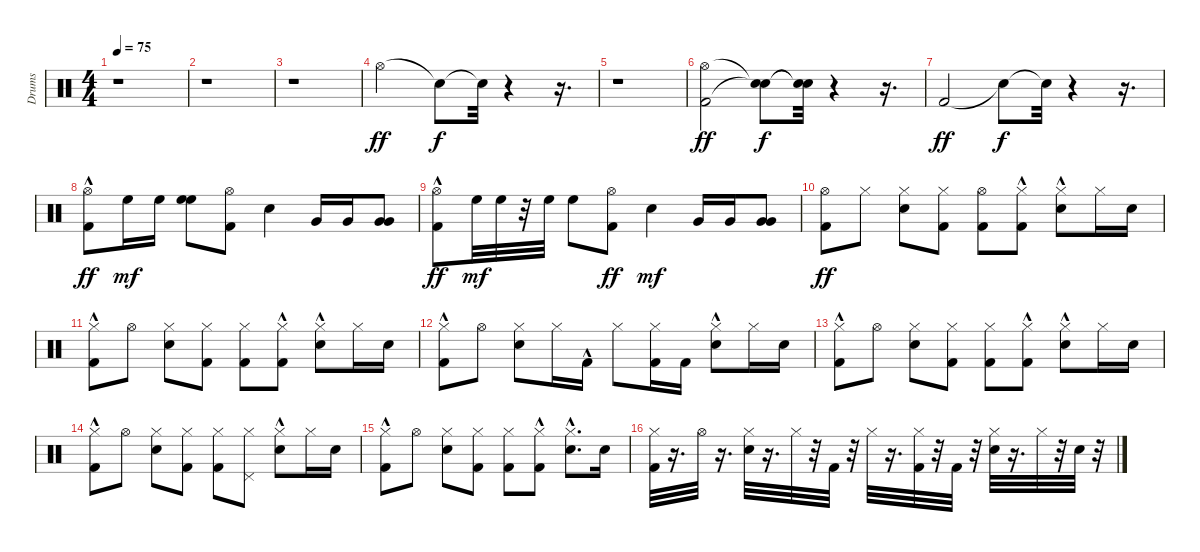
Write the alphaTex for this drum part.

\track ("Drums" "Drums") {instrument percussion}
\staff {score}
\articulation defaults
\ts (4 4)
\tempo 75
\clef neutral
\ks c
r.1{dy ff} |
r.1 |
r.1 |
"Hi-Hat (open)".2{volume 11} "Snare (hit)"{t}.8{dy f} "Snare (hit)"{t}.32 r.4 r.16{d} |
r.1 |
("Kick (hit) 2" "Hi-Hat (open)").2{dy ff} ("Snare (hit)"{t} "Snare (hit)"{t}).8{dy f} ("Snare (hit)"{t} "Snare (hit)"{t}).32 r.4 r.16{d} |
"Kick (hit) 2".2{dy ff} "Snare (hit)"{t}.8{dy f} "Snare (hit)"{t}.32 r.4 r.16{d} |
("Kick (hit) 2"{hac} "Hi-Hat (open)"{hac}).8{dy ff} "High Floor Tom (hit)".16{dy mf} "High Floor Tom (hit)".16 ("High Floor Tom (hit)" "High Floor Tom (hit)").8 ("Hi-Hat (open)" "Kick (hit) 2").8 "Snare (hit) 2".4 "Very Low Tom (hit)".16 "Very Low Tom (hit)".16 ("Very Low Tom (hit)" "Very Low Tom (hit)").8 |
("Kick (hit) 2"{hac} "Hi-Hat (open)"{hac}).8{dy ff} "High Floor Tom (hit)".32{dy mf} "High Floor Tom (hit)".32 r.32 "High Floor Tom (hit)".32 "High Floor Tom (hit)".8 ("Kick (hit) 2" "Hi-Hat (open)").8{dy ff} "Snare (hit) 2".4{dy mf} "Very Low Tom (hit)".16 "Very Low Tom (hit)".16 ("Very Low Tom (hit)" "Very Low Tom (hit)").8 |
("Kick (hit) 2" "Hi-Hat (open)").8{dy ff} "Hi-Hat (closed)".8 ("Snare (hit) 2" "Hi-Hat (closed)").8 ("Kick (hit) 2" "Hi-Hat (closed)").8 ("Kick (hit) 2" "Hi-Hat (open)").8 ("Kick (hit) 2"{hac} "Hi-Hat (closed)").8 ("Snare (hit) 2"{hac} "Hi-Hat (closed)").8 "Hi-Hat (closed)".16 "Snare (hit) 2".16 |
("Kick (hit) 2"{hac} "Hi-Hat (closed)").8 "Hi-Hat (open)".8 ("Snare (hit) 2" "Hi-Hat (closed)").8 ("Kick (hit) 2" "Hi-Hat (closed)").8 ("Kick (hit) 2" "Hi-Hat (closed)").8 ("Kick (hit) 2"{hac} "Hi-Hat (closed)").8 ("Snare (hit) 2"{hac} "Hi-Hat (closed)").8 "Hi-Hat (closed)".16 "Snare (hit) 2".16 |
("Kick (hit) 2"{hac} "Hi-Hat (closed)").8 "Hi-Hat (open)".8 ("Snare (hit) 2" "Hi-Hat (closed)").8 "Hi-Hat (closed)".16 "Kick (hit) 2"{hac}.16 "Hi-Hat (closed)".8 ("Kick (hit) 2" "Hi-Hat (closed)").16 "Kick (hit) 2".16 ("Snare (hit) 2"{hac} "Hi-Hat (closed)").8 "Hi-Hat (closed)".16 "Snare (hit) 2".16 |
("Kick (hit) 2"{hac} "Hi-Hat (closed)").8 "Hi-Hat (open)".8 ("Snare (hit) 2" "Hi-Hat (closed)").8 ("Kick (hit) 2" "Hi-Hat (closed)").8 ("Kick (hit) 2" "Hi-Hat (closed)").8 ("Kick (hit) 2"{hac} "Hi-Hat (closed)").8 ("Snare (hit) 2"{hac} "Hi-Hat (closed)").8 "Hi-Hat (closed)".16 "Snare (hit) 2".16 |
("Kick (hit) 2"{hac} "Hi-Hat (closed)").8 "Hi-Hat (open)".8 ("Snare (hit) 2" "Hi-Hat (closed)").8 ("Kick (hit) 2" "Hi-Hat (closed)").8 ("Kick (hit) 2" "Hi-Hat (closed)").8 ("Pedal Hi-Hat (hit)" "Hi-Hat (closed)").8 ("Snare (hit) 2"{hac} "Hi-Hat (closed)").8 "Hi-Hat (closed)".16 "Snare (hit) 2".16 |
("Kick (hit) 2"{hac} "Hi-Hat (closed)").8 "Hi-Hat (open)".8 ("Snare (hit) 2" "Hi-Hat (closed)").8 ("Kick (hit) 2" "Hi-Hat (closed)").8 ("Kick (hit) 2" "Hi-Hat (closed)").8 ("Kick (hit) 2"{hac} "Hi-Hat (closed)").8 ("Hi-Hat (closed)" "Snare (hit) 2"{hac}).8{d} "Snare (hit) 2".16 |
("Kick (hit) 2" "Hi-Hat (closed)").32 r.16{d} "Hi-Hat (open)".32 r.16{d} ("Snare (hit) 2" "Hi-Hat (closed)").32 r.16{d} "Hi-Hat (closed)".32 r.32 "Kick (hit) 2".32 r.32 "Hi-Hat (closed)".32 r.16{d} ("Kick (hit) 2" "Hi-Hat (closed)").32 r.32 "Kick (hit) 2".32 r.32 ("Snare (hit) 2" "Hi-Hat (closed)").32 r.16{d} "Hi-Hat (closed)".32 r.32 "Snare (hit) 2".32 r.32
